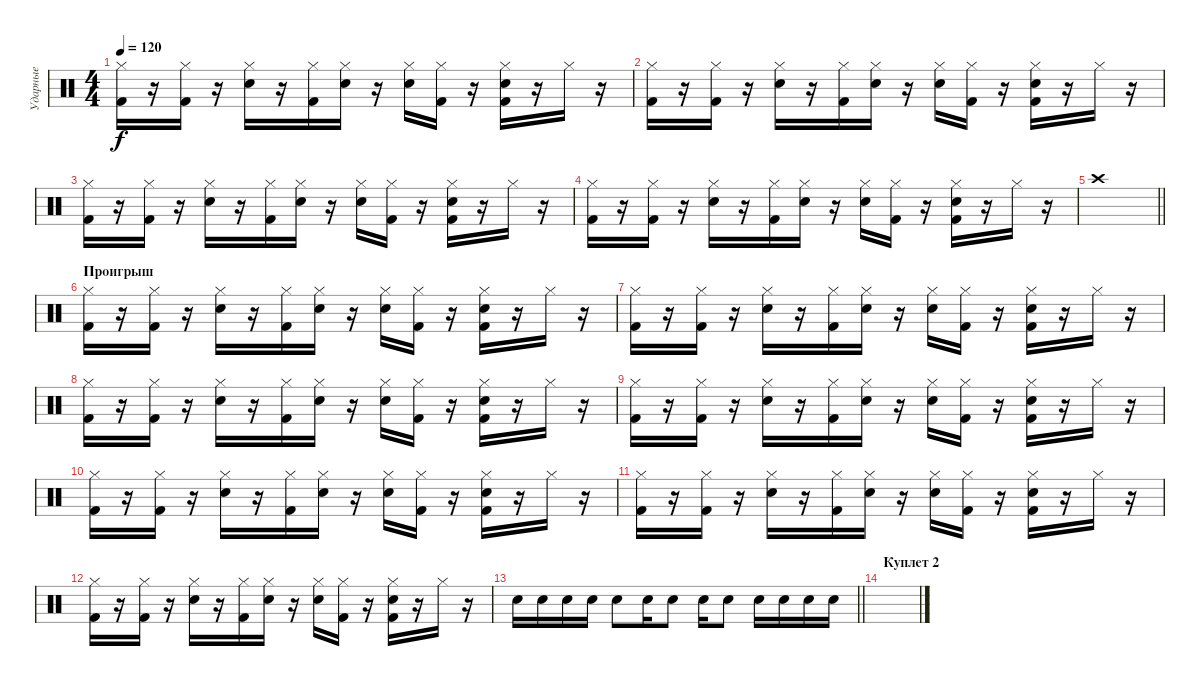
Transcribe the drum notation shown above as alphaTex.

\track ("Ударные" "Ударные") {instrument percussion}
\staff {score}
\articulation defaults
\ts (4 4)
\tempo 120
\clef neutral
\ks c
("Hi-Hat (closed)" "Kick (hit) 2").16{dy f} r.16 ("Hi-Hat (closed)" "Kick (hit) 2").16 r.16 ("Hi-Hat (closed)" "Electric Snare (hit)").16 r.16 ("Hi-Hat (closed)" "Kick (hit) 2").16 ("Hi-Hat (closed)" "Electric Snare (hit)").16 r.16 ("Hi-Hat (closed)" "Electric Snare (hit)").16 ("Hi-Hat (closed)" "Kick (hit) 2").16 r.16 ("Hi-Hat (closed)" "Electric Snare (hit)" "Kick (hit) 2").16 r.16 "Hi-Hat (closed)".16 r.16 |
("Hi-Hat (closed)" "Kick (hit) 2").16 r.16 ("Hi-Hat (closed)" "Kick (hit) 2").16 r.16 ("Hi-Hat (closed)" "Electric Snare (hit)").16 r.16 ("Hi-Hat (closed)" "Kick (hit) 2").16 ("Hi-Hat (closed)" "Electric Snare (hit)").16 r.16 ("Hi-Hat (closed)" "Electric Snare (hit)").16 ("Hi-Hat (closed)" "Kick (hit) 2").16 r.16 ("Hi-Hat (closed)" "Electric Snare (hit)" "Kick (hit) 2").16 r.16 "Hi-Hat (closed)".16 r.16 |
("Hi-Hat (closed)" "Kick (hit) 2").16 r.16 ("Hi-Hat (closed)" "Kick (hit) 2").16 r.16 ("Hi-Hat (closed)" "Electric Snare (hit)").16 r.16 ("Hi-Hat (closed)" "Kick (hit) 2").16 ("Hi-Hat (closed)" "Electric Snare (hit)").16 r.16 ("Hi-Hat (closed)" "Electric Snare (hit)").16 ("Hi-Hat (closed)" "Kick (hit) 2").16 r.16 ("Hi-Hat (closed)" "Electric Snare (hit)" "Kick (hit) 2").16 r.16 "Hi-Hat (closed)".16 r.16 |
("Hi-Hat (closed)" "Kick (hit) 2").16 r.16 ("Hi-Hat (closed)" "Kick (hit) 2").16 r.16 ("Hi-Hat (closed)" "Electric Snare (hit)").16 r.16 ("Hi-Hat (closed)" "Kick (hit) 2").16 ("Hi-Hat (closed)" "Electric Snare (hit)").16 r.16 ("Hi-Hat (closed)" "Electric Snare (hit)").16 ("Hi-Hat (closed)" "Kick (hit) 2").16 r.16 ("Hi-Hat (closed)" "Electric Snare (hit)" "Kick (hit) 2").16 r.16 "Hi-Hat (closed)".16 r.16 |
\barLineRight lightlight "Crash high (hit)".1
|
\section ("" "Проигрыш")
("Hi-Hat (closed)" "Kick (hit) 2").16 r.16 ("Hi-Hat (closed)" "Kick (hit) 2").16 r.16 ("Hi-Hat (closed)" "Electric Snare (hit)").16 r.16 ("Hi-Hat (closed)" "Kick (hit) 2").16 ("Hi-Hat (closed)" "Electric Snare (hit)").16 r.16 ("Hi-Hat (closed)" "Electric Snare (hit)").16 ("Hi-Hat (closed)" "Kick (hit) 2").16 r.16 ("Hi-Hat (closed)" "Electric Snare (hit)" "Kick (hit) 2").16 r.16 "Hi-Hat (closed)".16 r.16 |
("Hi-Hat (closed)" "Kick (hit) 2").16 r.16 ("Hi-Hat (closed)" "Kick (hit) 2").16 r.16 ("Hi-Hat (closed)" "Electric Snare (hit)").16 r.16 ("Hi-Hat (closed)" "Kick (hit) 2").16 ("Hi-Hat (closed)" "Electric Snare (hit)").16 r.16 ("Hi-Hat (closed)" "Electric Snare (hit)").16 ("Hi-Hat (closed)" "Kick (hit) 2").16 r.16 ("Hi-Hat (closed)" "Electric Snare (hit)" "Kick (hit) 2").16 r.16 "Hi-Hat (closed)".16 r.16 |
("Hi-Hat (closed)" "Kick (hit) 2").16 r.16 ("Hi-Hat (closed)" "Kick (hit) 2").16 r.16 ("Hi-Hat (closed)" "Electric Snare (hit)").16 r.16 ("Hi-Hat (closed)" "Kick (hit) 2").16 ("Hi-Hat (closed)" "Electric Snare (hit)").16 r.16 ("Hi-Hat (closed)" "Electric Snare (hit)").16 ("Hi-Hat (closed)" "Kick (hit) 2").16 r.16 ("Hi-Hat (closed)" "Electric Snare (hit)" "Kick (hit) 2").16 r.16 "Hi-Hat (closed)".16 r.16 |
("Hi-Hat (closed)" "Kick (hit) 2").16 r.16 ("Hi-Hat (closed)" "Kick (hit) 2").16 r.16 ("Hi-Hat (closed)" "Electric Snare (hit)").16 r.16 ("Hi-Hat (closed)" "Kick (hit) 2").16 ("Hi-Hat (closed)" "Electric Snare (hit)").16 r.16 ("Hi-Hat (closed)" "Electric Snare (hit)").16 ("Hi-Hat (closed)" "Kick (hit) 2").16 r.16 ("Hi-Hat (closed)" "Electric Snare (hit)" "Kick (hit) 2").16 r.16 "Hi-Hat (closed)".16 r.16 |
("Hi-Hat (closed)" "Kick (hit) 2").16 r.16 ("Hi-Hat (closed)" "Kick (hit) 2").16 r.16 ("Hi-Hat (closed)" "Electric Snare (hit)").16 r.16 ("Hi-Hat (closed)" "Kick (hit) 2").16 ("Hi-Hat (closed)" "Electric Snare (hit)").16 r.16 ("Hi-Hat (closed)" "Electric Snare (hit)").16 ("Hi-Hat (closed)" "Kick (hit) 2").16 r.16 ("Hi-Hat (closed)" "Electric Snare (hit)" "Kick (hit) 2").16 r.16 "Hi-Hat (closed)".16 r.16 |
("Hi-Hat (closed)" "Kick (hit) 2").16 r.16 ("Hi-Hat (closed)" "Kick (hit) 2").16 r.16 ("Hi-Hat (closed)" "Electric Snare (hit)").16 r.16 ("Hi-Hat (closed)" "Kick (hit) 2").16 ("Hi-Hat (closed)" "Electric Snare (hit)").16 r.16 ("Hi-Hat (closed)" "Electric Snare (hit)").16 ("Hi-Hat (closed)" "Kick (hit) 2").16 r.16 ("Hi-Hat (closed)" "Electric Snare (hit)" "Kick (hit) 2").16 r.16 "Hi-Hat (closed)".16 r.16 |
("Hi-Hat (closed)" "Kick (hit) 2").16 r.16 ("Hi-Hat (closed)" "Kick (hit) 2").16 r.16 ("Hi-Hat (closed)" "Electric Snare (hit)").16 r.16 ("Hi-Hat (closed)" "Kick (hit) 2").16 ("Hi-Hat (closed)" "Electric Snare (hit)").16 r.16 ("Hi-Hat (closed)" "Electric Snare (hit)").16 ("Hi-Hat (closed)" "Kick (hit) 2").16 r.16 ("Hi-Hat (closed)" "Electric Snare (hit)" "Kick (hit) 2").16 r.16 "Hi-Hat (closed)".16 r.16 |
\barLineRight lightlight "Snare (hit) 2".16 "Snare (hit) 2".16 "Snare (hit) 2".16 "Snare (hit) 2".16 "Electric Snare (hit)".8 "Snare (hit) 2".16 "Electric Snare (hit)".8 "Snare (hit) 2".16 "Electric Snare (hit)".8 "Electric Snare (hit)".16 "Electric Snare (hit)".16 "Electric Snare (hit)".16 "Electric Snare (hit)".16
|
\section ("" "Куплет 2")
